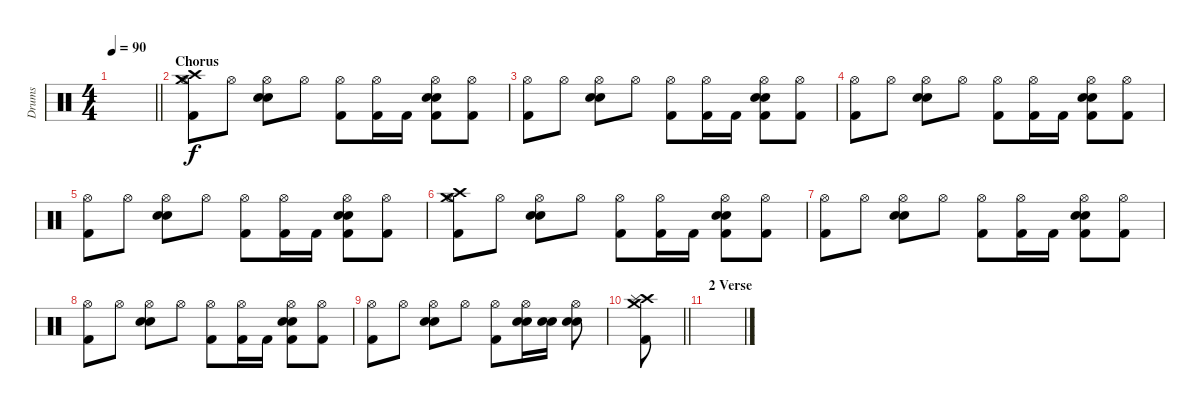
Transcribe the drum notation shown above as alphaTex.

\track ("Drums" "Drums") {instrument percussion}
\staff {score}
\articulation defaults
\ts (4 4)
\tempo 90
\clef neutral
\barLineRight lightlight
\ks c
|
\section ("" "Chorus")
("Hi-Hat (open)" "Crash high (hit)" "Crash medium (hit)" "Kick (hit) 2").8 "Hi-Hat (open)".8 ("Hi-Hat (open)" "Electric Snare (hit)" "Electric Snare (hit)").8 "Hi-Hat (open)".8 ("Hi-Hat (open)" "Kick (hit) 2").8 ("Hi-Hat (open)" "Kick (hit) 2").16 "Kick (hit) 2".16 ("Hi-Hat (open)" "Electric Snare (hit)" "Electric Snare (hit)" "Kick (hit) 2").8 ("Hi-Hat (open)" "Kick (hit) 2").8 |
("Hi-Hat (open)" "Kick (hit) 2").8 "Hi-Hat (open)".8 ("Hi-Hat (open)" "Electric Snare (hit)" "Electric Snare (hit)").8 "Hi-Hat (open)".8 ("Hi-Hat (open)" "Kick (hit) 2").8 ("Hi-Hat (open)" "Kick (hit) 2").16 "Kick (hit) 2".16 ("Hi-Hat (open)" "Electric Snare (hit)" "Electric Snare (hit)" "Kick (hit) 2").8 ("Hi-Hat (open)" "Kick (hit) 2").8 |
("Hi-Hat (open)" "Kick (hit) 2").8 "Hi-Hat (open)".8 ("Hi-Hat (open)" "Electric Snare (hit)" "Electric Snare (hit)").8 "Hi-Hat (open)".8 ("Hi-Hat (open)" "Kick (hit) 2").8 ("Hi-Hat (open)" "Kick (hit) 2").16 "Kick (hit) 2".16 ("Hi-Hat (open)" "Electric Snare (hit)" "Electric Snare (hit)" "Kick (hit) 2").8 ("Hi-Hat (open)" "Kick (hit) 2").8 |
("Hi-Hat (open)" "Kick (hit) 2").8 "Hi-Hat (open)".8 ("Hi-Hat (open)" "Electric Snare (hit)" "Electric Snare (hit)").8 "Hi-Hat (open)".8 ("Hi-Hat (open)" "Kick (hit) 2").8 ("Hi-Hat (open)" "Kick (hit) 2").16 "Kick (hit) 2".16 ("Hi-Hat (open)" "Electric Snare (hit)" "Electric Snare (hit)" "Kick (hit) 2").8 ("Hi-Hat (open)" "Kick (hit) 2").8 |
("Hi-Hat (open)" "Crash high (hit)" "Crash medium (hit)" "Kick (hit) 2").8 "Hi-Hat (open)".8 ("Hi-Hat (open)" "Electric Snare (hit)" "Electric Snare (hit)").8 "Hi-Hat (open)".8 ("Hi-Hat (open)" "Kick (hit) 2").8 ("Hi-Hat (open)" "Kick (hit) 2").16 "Kick (hit) 2".16 ("Hi-Hat (open)" "Electric Snare (hit)" "Electric Snare (hit)" "Kick (hit) 2").8 ("Hi-Hat (open)" "Kick (hit) 2").8 |
("Hi-Hat (open)" "Kick (hit) 2").8 "Hi-Hat (open)".8 ("Hi-Hat (open)" "Electric Snare (hit)" "Electric Snare (hit)").8 "Hi-Hat (open)".8 ("Hi-Hat (open)" "Kick (hit) 2").8 ("Hi-Hat (open)" "Kick (hit) 2").16 "Kick (hit) 2".16 ("Hi-Hat (open)" "Electric Snare (hit)" "Electric Snare (hit)" "Kick (hit) 2").8 ("Hi-Hat (open)" "Kick (hit) 2").8 |
("Hi-Hat (open)" "Kick (hit) 2").8 "Hi-Hat (open)".8 ("Hi-Hat (open)" "Electric Snare (hit)" "Electric Snare (hit)").8 "Hi-Hat (open)".8 ("Hi-Hat (open)" "Kick (hit) 2").8 ("Hi-Hat (open)" "Kick (hit) 2").16 "Kick (hit) 2".16 ("Hi-Hat (open)" "Electric Snare (hit)" "Electric Snare (hit)" "Kick (hit) 2").8 ("Hi-Hat (open)" "Kick (hit) 2").8 |
("Hi-Hat (open)" "Kick (hit) 2").8 "Hi-Hat (open)".8 ("Hi-Hat (open)" "Electric Snare (hit)" "Electric Snare (hit)").8 "Hi-Hat (open)".8 ("Hi-Hat (open)" "Kick (hit) 2").8 ("Hi-Hat (open)" "Electric Snare (hit)" "Electric Snare (hit)").16 ("Electric Snare (hit)" "Electric Snare (hit)").16 ("Hi-Hat (open)" "Electric Snare (hit)" "Electric Snare (hit)").8 |
\barLineRight lightlight
("Crash high (hit)" "Splash (hit)" "Crash medium (hit)" "Kick (hit) 2").8 |
\section ("" "2 Verse")
